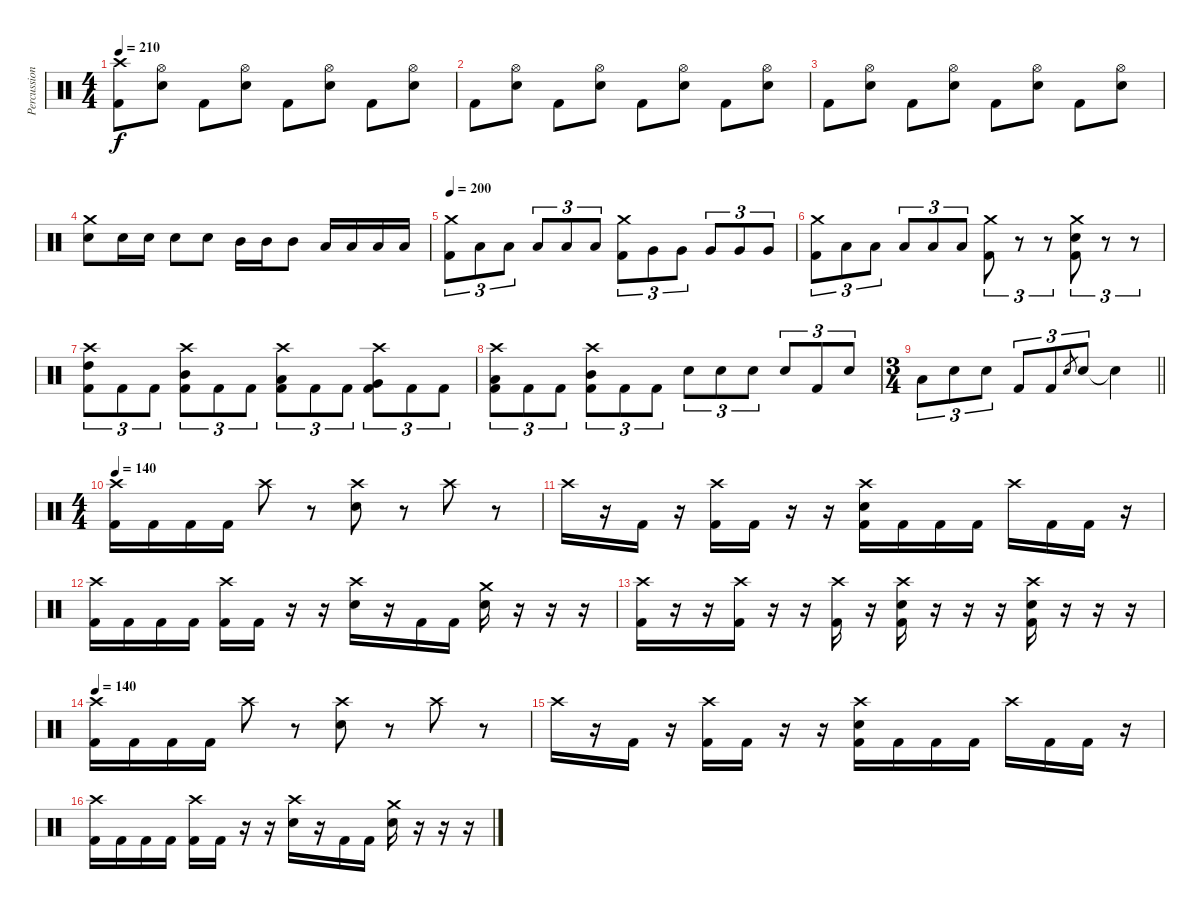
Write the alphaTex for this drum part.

\track ("Percussion" "Percussion") {instrument percussion}
\staff {score}
\articulation defaults
\ts (4 4)
\tempo 210
\clef neutral
\ks c
("Crash high (hit)" "Kick (hit) 2").8{dy f} ("Hi-Hat (open)" "Snare (hit) 2").8 "Kick (hit) 2".8 ("Hi-Hat (open)" "Snare (hit) 2").8 "Kick (hit) 2".8 ("Hi-Hat (open)" "Snare (hit) 2").8 "Kick (hit) 2".8 ("Hi-Hat (open)" "Snare (hit) 2").8 |
"Kick (hit) 2".8 ("Hi-Hat (open)" "Snare (hit) 2").8 "Kick (hit) 2".8 ("Hi-Hat (open)" "Snare (hit) 2").8 "Kick (hit) 2".8 ("Hi-Hat (open)" "Snare (hit) 2").8 "Kick (hit) 2".8 ("Hi-Hat (open)" "Snare (hit) 2").8 |
"Kick (hit) 2".8 ("Hi-Hat (open)" "Snare (hit) 2").8 "Kick (hit) 2".8 ("Hi-Hat (open)" "Snare (hit) 2").8 "Kick (hit) 2".8 ("Hi-Hat (open)" "Snare (hit) 2").8 "Kick (hit) 2".8 ("Hi-Hat (open)" "Snare (hit) 2").8 |
("Crash medium (hit)" "Snare (hit) 2").8 "Snare (hit) 2".16 "Snare (hit) 2".16 "Snare (hit) 2".8 "Snare (hit) 2".8 "Mid Tom (hit)".16 "Mid Tom (hit)".16 "Mid Tom (hit)".8 "Low Tom (hit)".16 "Low Tom (hit)".16 "Low Tom (hit)".16 "Low Tom (hit)".16 |
\tempo 200
("Crash medium (hit)" "Kick (hit) 2").8{tu (3 2)} "Low Tom (hit)".8{tu (3 2)} "Low Tom (hit)".8{tu (3 2)} "Low Tom (hit)".8{tu (3 2)} "Low Tom (hit)".8{tu (3 2)} "Low Tom (hit)".8{tu (3 2)} ("Crash medium (hit)" "Kick (hit) 2").8{tu (3 2)} "Very Low Tom (hit)".8{tu (3 2)} "Very Low Tom (hit)".8{tu (3 2)} "Very Low Tom (hit)".8{tu (3 2)} "Very Low Tom (hit)".8{tu (3 2)} "Very Low Tom (hit)".8{tu (3 2)} |
("Crash medium (hit)" "Kick (hit) 2").8{tu (3 2)} "Low Tom (hit)".8{tu (3 2)} "Low Tom (hit)".8{tu (3 2)} "Low Tom (hit)".8{tu (3 2)} "Low Tom (hit)".8{tu (3 2)} "Low Tom (hit)".8{tu (3 2)} ("Crash medium (hit)" "Kick (hit) 2").8{tu (3 2)} r.8{tu (3 2)} r.8{tu (3 2)} ("Crash medium (hit)" "Snare (hit) 2" "Kick (hit) 2").8{tu (3 2)} r.8{tu (3 2)} r.8{tu (3 2)} |
("Crash high (hit)" "High Tom (hit)" "Kick (hit) 2").8{tu (3 2)} "Kick (hit) 2".8{tu (3 2)} "Kick (hit) 2".8{tu (3 2)} ("Crash high (hit)" "Mid Tom (hit)" "Kick (hit) 2").8{tu (3 2)} "Kick (hit) 2".8{tu (3 2)} "Kick (hit) 2".8{tu (3 2)} ("Crash high (hit)" "Low Tom (hit)" "Kick (hit) 2").8{tu (3 2)} "Kick (hit) 2".8{tu (3 2)} "Kick (hit) 2".8{tu (3 2)} ("Crash high (hit)" "Very Low Tom (hit)" "Kick (hit) 2").8{tu (3 2)} "Kick (hit) 2".8{tu (3 2)} "Kick (hit) 2".8{tu (3 2)} |
("Crash high (hit)" "Low Tom (hit)" "Kick (hit) 2").8{tu (3 2)} "Kick (hit) 2".8{tu (3 2)} "Kick (hit) 2".8{tu (3 2)} ("Crash high (hit)" "Mid Tom (hit)" "Kick (hit) 2").8{tu (3 2)} "Kick (hit) 2".8{tu (3 2)} "Kick (hit) 2".8{tu (3 2)} "Snare (hit) 2".8{tu (3 2)} "Snare (hit) 2".8{tu (3 2)} "Snare (hit) 2".8{tu (3 2)} "Snare (hit) 2".8{tu (3 2)} "Kick (hit) 2".8{tu (3 2)} "Snare (hit) 2".8{tu (3 2)} |
\ts (3 4)
\barLineRight lightlight "Low Tom (hit)".8{tu (3 2)} "Snare (hit) 2".8{tu (3 2)} "Snare (hit) 2".8{tu (3 2)} "Kick (hit) 2".8{tu (3 2)} "Kick (hit) 2".8{tu (3 2)} "Snare (hit) 2".8{gr} "Snare (hit) 2".8{tu (3 2)} "Snare (hit) 2"{t}.4
|
\ts (4 4)
\tempo 140
("Crash high (hit)" "Kick (hit) 2").16 "Kick (hit) 2".16 "Kick (hit) 2".16 "Kick (hit) 2".16 "Crash high (hit)".8 r.8 ("Crash high (hit)" "Snare (hit) 2").8 r.8 "Crash high (hit)".8 r.8 |
"Crash high (hit)".16 r.16 "Kick (hit) 2".16 r.16 ("Crash high (hit)" "Kick (hit) 2").16 "Kick (hit) 2".16 r.16 r.16 ("Crash high (hit)" "Snare (hit) 2" "Kick (hit) 2").16 "Kick (hit) 2".16 "Kick (hit) 2".16 "Kick (hit) 2".16 "Crash high (hit)".16 "Kick (hit) 2".16 "Kick (hit) 2".16 r.16 |
("Crash high (hit)" "Kick (hit) 2").16 "Kick (hit) 2".16 "Kick (hit) 2".16 "Kick (hit) 2".16 ("Crash high (hit)" "Kick (hit) 2").16 "Kick (hit) 2".16 r.16 r.16 ("Crash high (hit)" "Snare (hit) 2").16 r.16 "Kick (hit) 2".16 "Kick (hit) 2".16 ("Crash medium (hit)" "Snare (hit) 2").16 r.16 r.16 r.16 |
("Crash high (hit)" "Kick (hit) 2").16 r.16 r.16 ("Crash high (hit)" "Kick (hit) 2").16 r.16 r.16 ("Crash high (hit)" "Kick (hit) 2").16 r.16 ("Crash high (hit)" "Snare (hit) 2" "Kick (hit) 2").16 r.16 r.16 r.16 ("Crash high (hit)" "Snare (hit) 2" "Kick (hit) 2").16 r.16 r.16 r.16 |
\tempo 140
("Crash high (hit)" "Kick (hit) 2").16 "Kick (hit) 2".16 "Kick (hit) 2".16 "Kick (hit) 2".16 "Crash high (hit)".8 r.8 ("Crash high (hit)" "Snare (hit) 2").8 r.8 "Crash high (hit)".8 r.8 |
"Crash high (hit)".16 r.16 "Kick (hit) 2".16 r.16 ("Crash high (hit)" "Kick (hit) 2").16 "Kick (hit) 2".16 r.16 r.16 ("Crash high (hit)" "Snare (hit) 2" "Kick (hit) 2").16 "Kick (hit) 2".16 "Kick (hit) 2".16 "Kick (hit) 2".16 "Crash high (hit)".16 "Kick (hit) 2".16 "Kick (hit) 2".16 r.16 |
("Crash high (hit)" "Kick (hit) 2").16 "Kick (hit) 2".16 "Kick (hit) 2".16 "Kick (hit) 2".16 ("Crash high (hit)" "Kick (hit) 2").16 "Kick (hit) 2".16 r.16 r.16 ("Crash high (hit)" "Snare (hit) 2").16 r.16 "Kick (hit) 2".16 "Kick (hit) 2".16 ("Crash medium (hit)" "Snare (hit) 2").16 r.16 r.16 r.16
